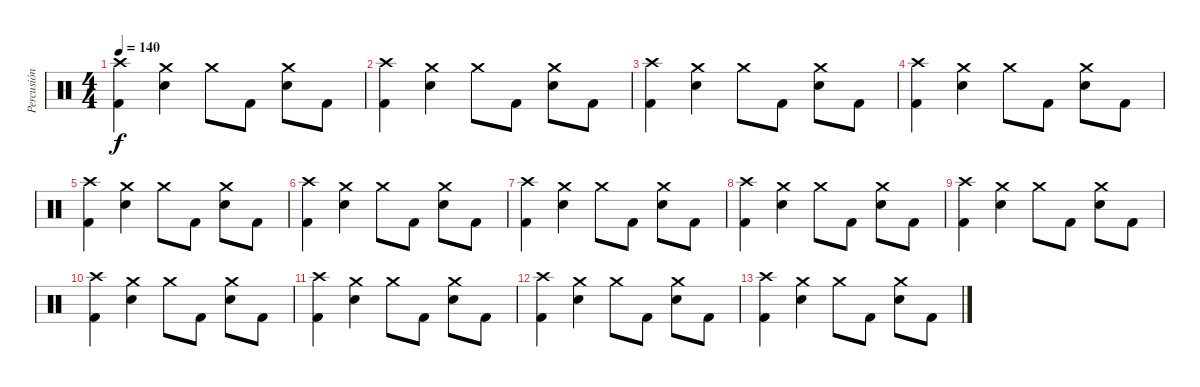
\track ("Percusión" "Percusión") {instrument percussion}
\staff {score}
\articulation defaults
\ts (4 4)
\tempo 140
\clef neutral
\ks c
("Crash high (hit)" "Kick (hit) 2").4{dy f} ("Crash medium (hit)" "Snare (hit) 2").4 "Crash medium (hit)".8 "Kick (hit) 2".8 ("Crash medium (hit)" "Snare (hit) 2").8 "Kick (hit) 2".8 |
("Crash high (hit)" "Kick (hit) 2").4 ("Crash medium (hit)" "Snare (hit) 2").4 "Crash medium (hit)".8 "Kick (hit) 2".8 ("Crash medium (hit)" "Snare (hit) 2").8 "Kick (hit) 2".8 |
("Crash high (hit)" "Kick (hit) 2").4 ("Crash medium (hit)" "Snare (hit) 2").4 "Crash medium (hit)".8 "Kick (hit) 2".8 ("Crash medium (hit)" "Snare (hit) 2").8 "Kick (hit) 2".8 |
("Crash high (hit)" "Kick (hit) 2").4 ("Crash medium (hit)" "Snare (hit) 2").4 "Crash medium (hit)".8 "Kick (hit) 2".8 ("Crash medium (hit)" "Snare (hit) 2").8 "Kick (hit) 2".8 |
("Crash high (hit)" "Kick (hit) 2").4 ("Crash medium (hit)" "Snare (hit) 2").4 "Crash medium (hit)".8 "Kick (hit) 2".8 ("Crash medium (hit)" "Snare (hit) 2").8 "Kick (hit) 2".8 |
("Crash high (hit)" "Kick (hit) 2").4 ("Crash medium (hit)" "Snare (hit) 2").4 "Crash medium (hit)".8 "Kick (hit) 2".8 ("Crash medium (hit)" "Snare (hit) 2").8 "Kick (hit) 2".8 |
("Crash high (hit)" "Kick (hit) 2").4 ("Crash medium (hit)" "Snare (hit) 2").4 "Crash medium (hit)".8 "Kick (hit) 2".8 ("Crash medium (hit)" "Snare (hit) 2").8 "Kick (hit) 2".8 |
("Crash high (hit)" "Kick (hit) 2").4 ("Crash medium (hit)" "Snare (hit) 2").4 "Crash medium (hit)".8 "Kick (hit) 2".8 ("Crash medium (hit)" "Snare (hit) 2").8 "Kick (hit) 2".8 |
("Crash high (hit)" "Kick (hit) 2").4 ("Crash medium (hit)" "Snare (hit) 2").4 "Crash medium (hit)".8 "Kick (hit) 2".8 ("Crash medium (hit)" "Snare (hit) 2").8 "Kick (hit) 2".8 |
("Crash high (hit)" "Kick (hit) 2").4 ("Crash medium (hit)" "Snare (hit) 2").4 "Crash medium (hit)".8 "Kick (hit) 2".8 ("Crash medium (hit)" "Snare (hit) 2").8 "Kick (hit) 2".8 |
("Crash high (hit)" "Kick (hit) 2").4 ("Crash medium (hit)" "Snare (hit) 2").4 "Crash medium (hit)".8 "Kick (hit) 2".8 ("Crash medium (hit)" "Snare (hit) 2").8 "Kick (hit) 2".8 |
("Crash high (hit)" "Kick (hit) 2").4 ("Crash medium (hit)" "Snare (hit) 2").4 "Crash medium (hit)".8 "Kick (hit) 2".8 ("Crash medium (hit)" "Snare (hit) 2").8 "Kick (hit) 2".8 |
("Crash high (hit)" "Kick (hit) 2").4 ("Crash medium (hit)" "Snare (hit) 2").4 "Crash medium (hit)".8 "Kick (hit) 2".8 ("Crash medium (hit)" "Snare (hit) 2").8 "Kick (hit) 2".8
